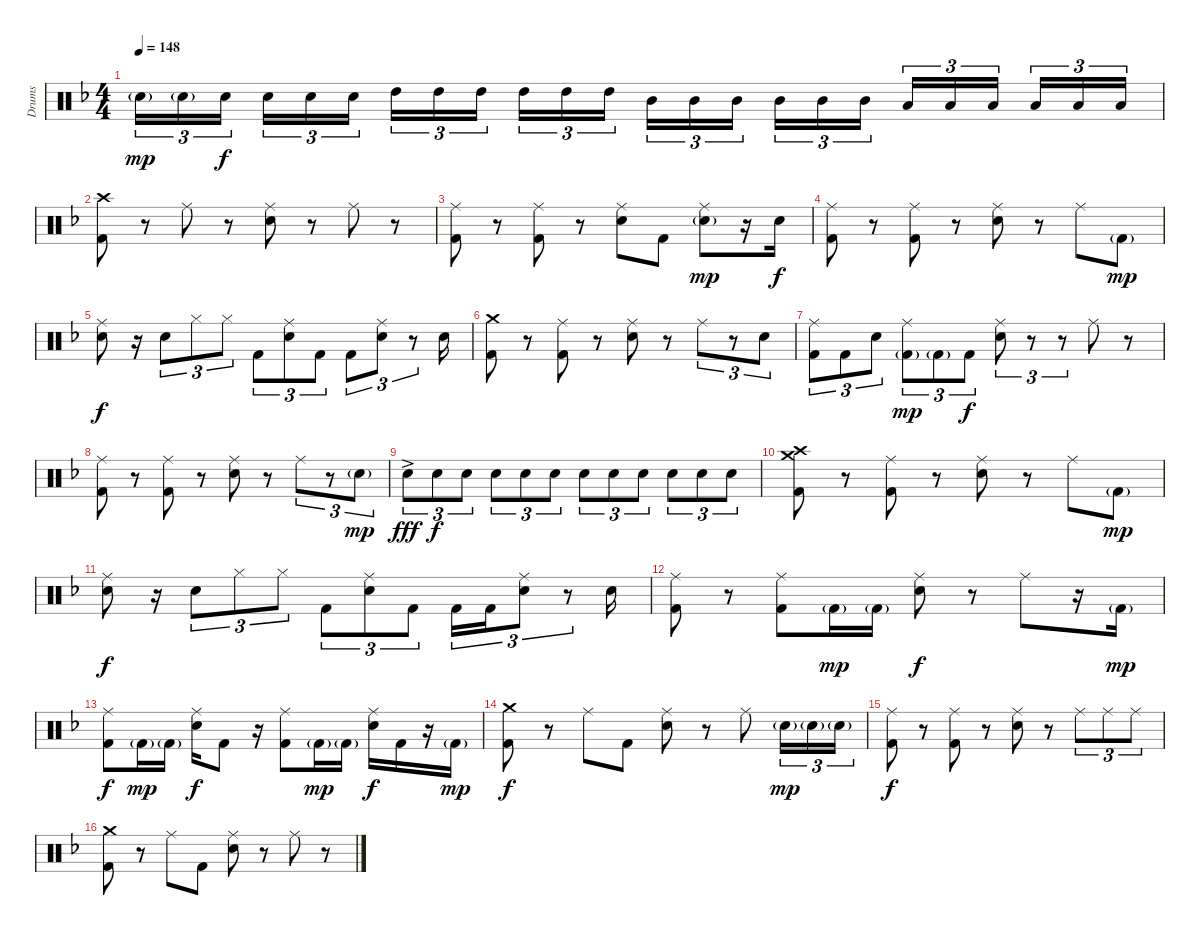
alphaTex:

\track ("Drums" "Drums") {instrument percussion}
\staff {score}
\articulation defaults
\ts (4 4)
\tempo 148
\clef neutral
\ks dminor "Snare (hit) 2"{g}.16{tu (3 2) dy mp} "Snare (hit) 2"{g}.16{tu (3 2)} "Snare (hit) 2".16{tu (3 2) dy f} "Snare (hit) 2".16{tu (3 2)} "Snare (hit) 2".16{tu (3 2)} "Snare (hit) 2".16{tu (3 2)} "High Tom (hit)".16{tu (3 2)} "High Tom (hit)".16{tu (3 2)} "High Tom (hit)".16{tu (3 2)} "High Tom (hit)".16{tu (3 2)} "High Tom (hit)".16{tu (3 2)} "High Tom (hit)".16{tu (3 2)} "Mid Tom (hit)".16{tu (3 2)} "Mid Tom (hit)".16{tu (3 2)} "Mid Tom (hit)".16{tu (3 2)} "Mid Tom (hit)".16{tu (3 2)} "Mid Tom (hit)".16{tu (3 2)} "Mid Tom (hit)".16{tu (3 2)} "Low Tom (hit)".16{tu (3 2)} "Low Tom (hit)".16{tu (3 2)} "Low Tom (hit)".16{tu (3 2)} "Low Tom (hit)".16{tu (3 2)} "Low Tom (hit)".16{tu (3 2)} "Low Tom (hit)".16{tu (3 2)}
|
("Crash high (hit)" "Kick (hit) 2").8 r.8 "Ride (middle)".8 r.8 ("Ride (middle)" "Snare (hit) 2").8 r.8 "Ride (middle)".8 r.8 |
("Ride (middle)" "Kick (hit) 2").8 r.8 ("Ride (middle)" "Kick (hit) 2").8 r.8 ("Ride (middle)" "Snare (hit) 2").8 "Kick (hit) 2".8 ("Ride (middle)" "Snare (hit) 2"{g}).8{dy mp} r.16 "Snare (hit) 2".16{dy f} |
("Ride (middle)" "Kick (hit) 2").8 r.8 ("Ride (middle)" "Kick (hit) 2").8 r.8 ("Ride (middle)" "Snare (hit) 2").8 r.8 "Ride (middle)".8 "Kick (hit) 2"{g}.8{dy mp} |
("Ride (middle)" "Snare (hit) 2").8{dy f} r.16 "Snare (hit) 2".8{tu (3 2)} "Hi-Hat (closed)".8{tu (3 2)} "Hi-Hat (closed)".8{tu (3 2)} "Kick (hit) 2".8{tu (3 2)} ("Ride (middle)" "Snare (hit) 2").8{tu (3 2)} "Kick (hit) 2".8{tu (3 2)} "Kick (hit) 2".8{tu (3 2)} ("Ride (middle)" "Snare (hit) 2").8{tu (3 2)} r.8{tu (3 2)} "Snare (hit) 2".16 |
("Crash medium (hit)" "Kick (hit) 2").8 r.8 ("Ride (middle)" "Kick (hit) 2").8 r.8 ("Ride (middle)" "Snare (hit) 2").8 r.8 "Ride (middle)".8{tu (3 2)} r.8{tu (3 2)} "Snare (hit) 2".8{tu (3 2)} |
("Ride (middle)" "Kick (hit) 2").8{tu (3 2)} "Kick (hit) 2".8{tu (3 2)} "Snare (hit) 2".8{tu (3 2)} ("Ride (middle)" "Kick (hit) 2"{g}).8{tu (3 2) dy mp} "Kick (hit) 2"{g}.8{tu (3 2)} "Kick (hit) 2".8{tu (3 2) dy f} ("Ride (middle)" "Snare (hit) 2").8{tu (3 2)} r.8{tu (3 2)} r.8{tu (3 2)} "Ride (middle)".8 r.8 |
("Ride (middle)" "Kick (hit) 2").8 r.8 ("Ride (middle)" "Kick (hit) 2").8 r.8 ("Ride (middle)" "Snare (hit) 2").8 r.8 "Ride (middle)".8{tu (3 2)} r.8{tu (3 2)} "Snare (hit) 2"{g}.8{tu (3 2) dy mp} |
"Snare (hit) 2"{ac}.8{tu (3 2) dy fff} "Snare (hit) 2".8{tu (3 2) dy f} "Snare (hit) 2".8{tu (3 2)} "Snare (hit) 2".8{tu (3 2)} "Snare (hit) 2".8{tu (3 2)} "Snare (hit) 2".8{tu (3 2)} "Snare (hit) 2".8{tu (3 2)} "Snare (hit) 2".8{tu (3 2)} "Snare (hit) 2".8{tu (3 2)} "Snare (hit) 2".8{tu (3 2)} "Snare (hit) 2".8{tu (3 2)} "Snare (hit) 2".8{tu (3 2)} |
("Crash high (hit)" "Crash medium (hit)" "Kick (hit) 2").8 r.8 ("Ride (middle)" "Kick (hit) 2").8 r.8 ("Ride (middle)" "Snare (hit) 2").8 r.8 "Ride (middle)".8 "Kick (hit) 2"{g}.8{dy mp} |
("Ride (middle)" "Snare (hit) 2").8{dy f} r.16 "Snare (hit) 2".8{tu (3 2)} "Hi-Hat (closed)".8{tu (3 2)} "Hi-Hat (closed)".8{tu (3 2)} "Kick (hit) 2".8{tu (3 2)} ("Ride (middle)" "Snare (hit) 2").8{tu (3 2)} "Kick (hit) 2".8{tu (3 2)} "Kick (hit) 2".16{tu (3 2)} "Kick (hit) 2".16{tu (3 2)} ("Ride (middle)" "Snare (hit) 2").8{tu (3 2)} r.8{tu (3 2)} "Snare (hit) 2".16 |
("Ride (middle)" "Kick (hit) 2").8 r.8 ("Ride (middle)" "Kick (hit) 2").8 "Kick (hit) 2"{g}.16{dy mp} "Kick (hit) 2"{g}.16 ("Ride (middle)" "Snare (hit) 2").8{dy f} r.8 "Ride (middle)".8 r.16 "Kick (hit) 2"{g}.16{dy mp} |
("Ride (middle)" "Kick (hit) 2").8{dy f} "Kick (hit) 2"{g}.16{dy mp} "Kick (hit) 2"{g}.16 ("Ride (middle)" "Snare (hit) 2").16{dy f} "Kick (hit) 2".8 r.16 ("Ride (middle)" "Kick (hit) 2").8 "Kick (hit) 2"{g}.16{dy mp} "Kick (hit) 2"{g}.16 ("Ride (middle)" "Snare (hit) 2").16{dy f} "Kick (hit) 2".16 r.16 "Kick (hit) 2"{g}.16{dy mp} |
("Crash medium (hit)" "Kick (hit) 2").8{dy f} r.8 "Ride (middle)".8 "Kick (hit) 2".8 ("Ride (middle)" "Snare (hit) 2").8 r.8 "Ride (middle)".8 "Snare (hit) 2"{g}.16{tu (3 2) dy mp} "Snare (hit) 2"{g}.16{tu (3 2)} "Snare (hit) 2"{g}.16{tu (3 2)} |
("Ride (middle)" "Kick (hit) 2").8{dy f} r.8 ("Ride (middle)" "Kick (hit) 2").8 r.8 ("Ride (middle)" "Snare (hit) 2").8 r.8 "Ride (middle)".8{tu (3 2)} "Ride (middle)".8{tu (3 2)} "Ride (middle)".8{tu (3 2)} |
("Crash medium (hit)" "Kick (hit) 2").8 r.8 "Ride (middle)".8 "Kick (hit) 2".8 ("Ride (middle)" "Snare (hit) 2").8 r.8 "Ride (middle)".8 r.8
